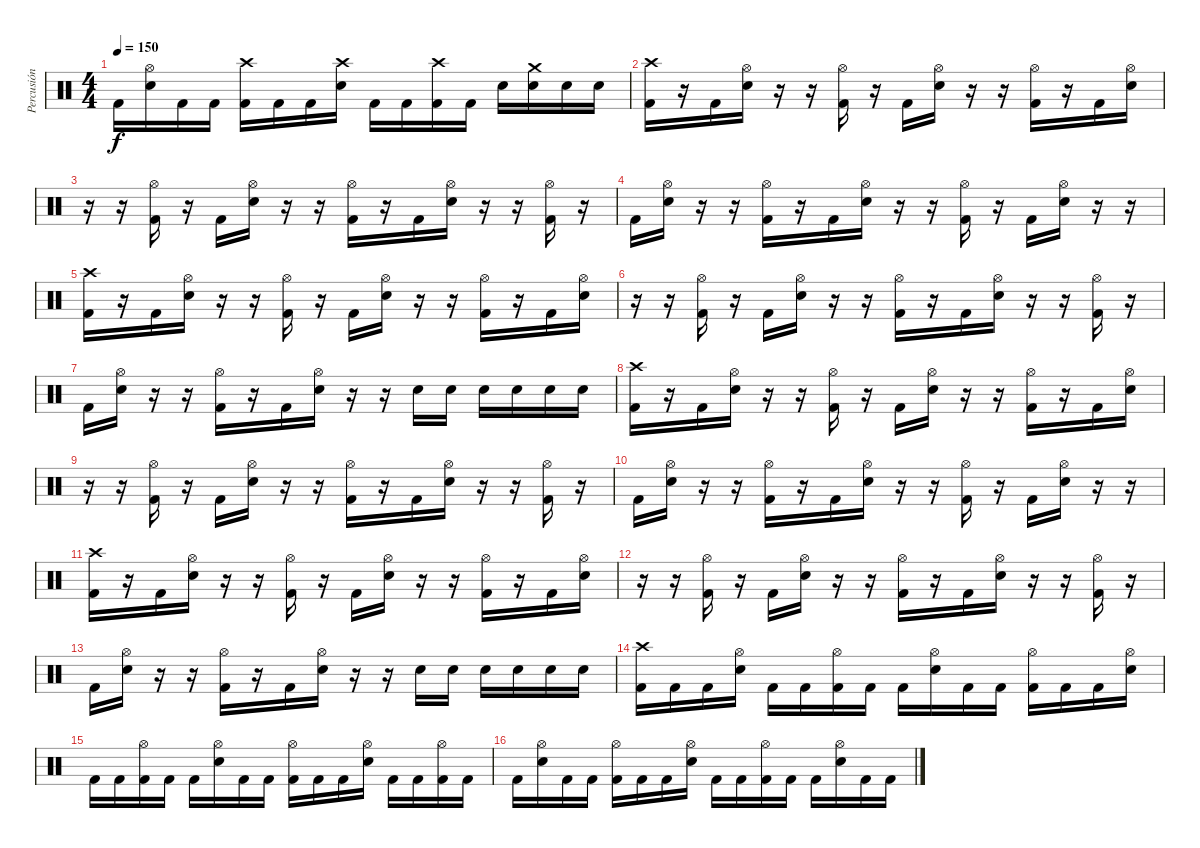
\track ("Percusión" "Percusión") {instrument percussion}
\staff {score}
\articulation defaults
\ts (4 4)
\tempo 150
\clef neutral
\ks c "Kick (hit) 2".16{dy f}
("Hi-Hat (open)" "Electric Snare (hit)").16 "Kick (hit) 2".16 "Kick (hit) 2".16 ("Crash high (hit)" "Kick (hit) 2").16 "Kick (hit) 2".16 "Kick (hit) 2".16 ("Crash high (hit)" "Electric Snare (hit)").16 "Kick (hit) 2".16 "Kick (hit) 2".16 ("Crash high (hit)" "Kick (hit) 2").16 "Kick (hit) 2".16 "Electric Snare (hit)".16 ("Crash medium (hit)" "Electric Snare (hit)").16 "Electric Snare (hit)".16 "Electric Snare (hit)".16 |
("Crash high (hit)" "Kick (hit) 2").16 r.16 "Kick (hit) 2".16 ("Hi-Hat (open)" "Electric Snare (hit)").16 r.16 r.16 ("Hi-Hat (open)" "Kick (hit) 2").16 r.16 "Kick (hit) 2".16 ("Hi-Hat (open)" "Electric Snare (hit)").16 r.16 r.16 ("Hi-Hat (open)" "Kick (hit) 2").16 r.16 "Kick (hit) 2".16 ("Hi-Hat (open)" "Electric Snare (hit)").16 |
r.16 r.16 ("Hi-Hat (open)" "Kick (hit) 2").16 r.16 "Kick (hit) 2".16 ("Hi-Hat (open)" "Electric Snare (hit)").16 r.16 r.16 ("Hi-Hat (open)" "Kick (hit) 2").16 r.16 "Kick (hit) 2".16 ("Hi-Hat (open)" "Electric Snare (hit)").16 r.16 r.16 ("Hi-Hat (open)" "Kick (hit) 2").16 r.16 |
"Kick (hit) 2".16 ("Hi-Hat (open)" "Electric Snare (hit)").16 r.16 r.16 ("Hi-Hat (open)" "Kick (hit) 2").16 r.16 "Kick (hit) 2".16 ("Hi-Hat (open)" "Electric Snare (hit)").16 r.16 r.16 ("Hi-Hat (open)" "Kick (hit) 2").16 r.16 "Kick (hit) 2".16 ("Hi-Hat (open)" "Electric Snare (hit)").16 r.16 r.16 |
("Crash high (hit)" "Kick (hit) 2").16 r.16 "Kick (hit) 2".16 ("Hi-Hat (open)" "Electric Snare (hit)").16 r.16 r.16 ("Hi-Hat (open)" "Kick (hit) 2").16 r.16 "Kick (hit) 2".16 ("Hi-Hat (open)" "Electric Snare (hit)").16 r.16 r.16 ("Hi-Hat (open)" "Kick (hit) 2").16 r.16 "Kick (hit) 2".16 ("Hi-Hat (open)" "Electric Snare (hit)").16 |
r.16 r.16 ("Hi-Hat (open)" "Kick (hit) 2").16 r.16 "Kick (hit) 2".16 ("Hi-Hat (open)" "Electric Snare (hit)").16 r.16 r.16 ("Hi-Hat (open)" "Kick (hit) 2").16 r.16 "Kick (hit) 2".16 ("Hi-Hat (open)" "Electric Snare (hit)").16 r.16 r.16 ("Hi-Hat (open)" "Kick (hit) 2").16 r.16 |
"Kick (hit) 2".16 ("Hi-Hat (open)" "Electric Snare (hit)").16 r.16 r.16 ("Hi-Hat (open)" "Kick (hit) 2").16 r.16 "Kick (hit) 2".16 ("Hi-Hat (open)" "Electric Snare (hit)").16 r.16 r.16 "Electric Snare (hit)".16 "Electric Snare (hit)".16 "Electric Snare (hit)".16 "Electric Snare (hit)".16 "Electric Snare (hit)".16 "Electric Snare (hit)".16 |
("Crash high (hit)" "Kick (hit) 2").16 r.16 "Kick (hit) 2".16 ("Hi-Hat (open)" "Electric Snare (hit)").16 r.16 r.16 ("Hi-Hat (open)" "Kick (hit) 2").16 r.16 "Kick (hit) 2".16 ("Hi-Hat (open)" "Electric Snare (hit)").16 r.16 r.16 ("Hi-Hat (open)" "Kick (hit) 2").16 r.16 "Kick (hit) 2".16 ("Hi-Hat (open)" "Electric Snare (hit)").16 |
r.16 r.16 ("Hi-Hat (open)" "Kick (hit) 2").16 r.16 "Kick (hit) 2".16 ("Hi-Hat (open)" "Electric Snare (hit)").16 r.16 r.16 ("Hi-Hat (open)" "Kick (hit) 2").16 r.16 "Kick (hit) 2".16 ("Hi-Hat (open)" "Electric Snare (hit)").16 r.16 r.16 ("Hi-Hat (open)" "Kick (hit) 2").16 r.16 |
"Kick (hit) 2".16 ("Hi-Hat (open)" "Electric Snare (hit)").16 r.16 r.16 ("Hi-Hat (open)" "Kick (hit) 2").16 r.16 "Kick (hit) 2".16 ("Hi-Hat (open)" "Electric Snare (hit)").16 r.16 r.16 ("Hi-Hat (open)" "Kick (hit) 2").16 r.16 "Kick (hit) 2".16 ("Hi-Hat (open)" "Electric Snare (hit)").16 r.16 r.16 |
("Crash high (hit)" "Kick (hit) 2").16 r.16 "Kick (hit) 2".16 ("Hi-Hat (open)" "Electric Snare (hit)").16 r.16 r.16 ("Hi-Hat (open)" "Kick (hit) 2").16 r.16 "Kick (hit) 2".16 ("Hi-Hat (open)" "Electric Snare (hit)").16 r.16 r.16 ("Hi-Hat (open)" "Kick (hit) 2").16 r.16 "Kick (hit) 2".16 ("Hi-Hat (open)" "Electric Snare (hit)").16 |
r.16 r.16 ("Hi-Hat (open)" "Kick (hit) 2").16 r.16 "Kick (hit) 2".16 ("Hi-Hat (open)" "Electric Snare (hit)").16 r.16 r.16 ("Hi-Hat (open)" "Kick (hit) 2").16 r.16 "Kick (hit) 2".16 ("Hi-Hat (open)" "Electric Snare (hit)").16 r.16 r.16 ("Hi-Hat (open)" "Kick (hit) 2").16 r.16 |
"Kick (hit) 2".16 ("Hi-Hat (open)" "Electric Snare (hit)").16 r.16 r.16 ("Hi-Hat (open)" "Kick (hit) 2").16 r.16 "Kick (hit) 2".16 ("Hi-Hat (open)" "Electric Snare (hit)").16 r.16 r.16 "Electric Snare (hit)".16 "Electric Snare (hit)".16 "Electric Snare (hit)".16 "Electric Snare (hit)".16 "Electric Snare (hit)".16 "Electric Snare (hit)".16 |
("Crash high (hit)" "Kick (hit) 2").16 "Kick (hit) 2".16 "Kick (hit) 2".16 ("Hi-Hat (open)" "Electric Snare (hit)").16 "Kick (hit) 2".16 "Kick (hit) 2".16 ("Hi-Hat (open)" "Kick (hit) 2").16 "Kick (hit) 2".16 "Kick (hit) 2".16 ("Hi-Hat (open)" "Electric Snare (hit)").16 "Kick (hit) 2".16 "Kick (hit) 2".16 ("Hi-Hat (open)" "Kick (hit) 2").16 "Kick (hit) 2".16 "Kick (hit) 2".16 ("Hi-Hat (open)" "Electric Snare (hit)").16 |
"Kick (hit) 2".16 "Kick (hit) 2".16 ("Hi-Hat (open)" "Kick (hit) 2").16 "Kick (hit) 2".16 "Kick (hit) 2".16 ("Hi-Hat (open)" "Electric Snare (hit)").16 "Kick (hit) 2".16 "Kick (hit) 2".16 ("Hi-Hat (open)" "Kick (hit) 2").16 "Kick (hit) 2".16 "Kick (hit) 2".16 ("Hi-Hat (open)" "Electric Snare (hit)").16 "Kick (hit) 2".16 "Kick (hit) 2".16 ("Hi-Hat (open)" "Kick (hit) 2").16 "Kick (hit) 2".16 |
"Kick (hit) 2".16 ("Hi-Hat (open)" "Electric Snare (hit)").16 "Kick (hit) 2".16 "Kick (hit) 2".16 ("Hi-Hat (open)" "Kick (hit) 2").16 "Kick (hit) 2".16 "Kick (hit) 2".16 ("Hi-Hat (open)" "Electric Snare (hit)").16 "Kick (hit) 2".16 "Kick (hit) 2".16 ("Hi-Hat (open)" "Kick (hit) 2").16 "Kick (hit) 2".16 "Kick (hit) 2".16 ("Hi-Hat (open)" "Electric Snare (hit)").16 "Kick (hit) 2".16 "Kick (hit) 2".16
